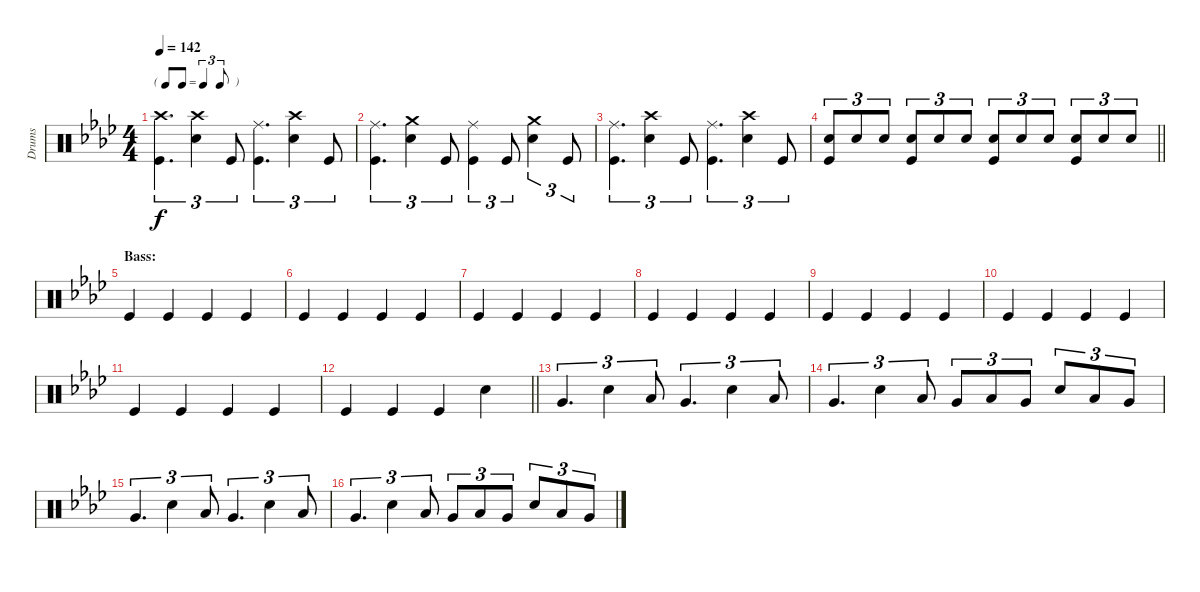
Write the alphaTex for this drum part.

\track ("Drums" "Drums") {instrument percussion}
\staff {score}
\articulation defaults
\ts (4 4)
\tf triplet8th
\tempo 142
\clef neutral
\ks ab
("Crash high (hit)" "Kick (hit)").4{d tu (3 2) dy f} ("Snare (hit) 2" "Crash high (hit)").4{tu (3 2)} "Kick (hit)".8{tu (3 2)} ("Kick (hit)" "Ride (middle)").4{d tu (3 2)} ("Snare (hit) 2" "Crash high (hit)").4{tu (3 2)} "Kick (hit)".8{tu (3 2)} |
("Kick (hit)" "Ride (middle)").4{d tu (3 2)} ("Snare (hit) 2" "Crash medium (hit)").4{tu (3 2)} "Kick (hit)".8{tu (3 2)} ("Kick (hit)" "Ride (middle)").4{tu (3 2)} "Kick (hit)".8{tu (3 2)} ("Snare (hit) 2" "Crash medium (hit)").4{tu (3 2)} "Kick (hit)".8{tu (3 2)} |
("Ride (middle)" "Kick (hit)").4{d tu (3 2)} ("Snare (hit) 2" "Crash high (hit)").4{tu (3 2)} "Kick (hit)".8{tu (3 2)} ("Kick (hit)" "Ride (middle)").4{d tu (3 2)} ("Snare (hit) 2" "Crash high (hit)").4{tu (3 2)} "Kick (hit)".8{tu (3 2)} |
\barLineRight lightlight
("Snare (hit) 2" "Kick (hit)").8{tu (3 2)} "Snare (hit) 2".8{tu (3 2)} "Snare (hit) 2".8{tu (3 2)} ("Snare (hit) 2" "Kick (hit)").8{tu (3 2)} "Snare (hit) 2".8{tu (3 2)} "Snare (hit) 2".8{tu (3 2)} ("Snare (hit) 2" "Kick (hit)").8{tu (3 2)} "Snare (hit) 2".8{tu (3 2)} "Snare (hit) 2".8{tu (3 2)} ("Snare (hit) 2" "Kick (hit)").8{tu (3 2)} "Snare (hit) 2".8{tu (3 2)} "Snare (hit) 2".8{tu (3 2)} |
\section ("" "Bass:")
"Kick (hit)".4 "Kick (hit)".4 "Kick (hit)".4 "Kick (hit)".4 |
"Kick (hit)".4 "Kick (hit)".4 "Kick (hit)".4 "Kick (hit)".4 |
"Kick (hit)".4 "Kick (hit)".4 "Kick (hit)".4 "Kick (hit)".4 |
"Kick (hit)".4 "Kick (hit)".4 "Kick (hit)".4 "Kick (hit)".4 |
"Kick (hit)".4 "Kick (hit)".4 "Kick (hit)".4 "Kick (hit)".4 |
"Kick (hit)".4 "Kick (hit)".4 "Kick (hit)".4 "Kick (hit)".4 |
"Kick (hit)".4 "Kick (hit)".4 "Kick (hit)".4 "Kick (hit)".4 |
\barLineRight lightlight "Kick (hit)".4 "Kick (hit)".4 "Kick (hit)".4 "Snare (hit) 2".4
|
"Very Low Tom (hit)".4{d tu (3 2)} "Snare (hit) 2".4{tu (3 2)} "Low Floor Tom (hit)".8{tu (3 2)} "Very Low Tom (hit)".4{d tu (3 2)} "Snare (hit) 2".4{tu (3 2)} "Low Floor Tom (hit)".8{tu (3 2)} |
"Very Low Tom (hit)".4{d tu (3 2)} "Snare (hit) 2".4{tu (3 2)} "Low Floor Tom (hit)".8{tu (3 2)} "Very Low Tom (hit)".8{tu (3 2)} "Low Floor Tom (hit)".8{tu (3 2)} "Very Low Tom (hit)".8{tu (3 2)} "Snare (hit) 2".8{tu (3 2)} "Low Floor Tom (hit)".8{tu (3 2)} "Very Low Tom (hit)".8{tu (3 2)} |
"Very Low Tom (hit)".4{d tu (3 2)} "Snare (hit) 2".4{tu (3 2)} "Low Floor Tom (hit)".8{tu (3 2)} "Very Low Tom (hit)".4{d tu (3 2)} "Snare (hit) 2".4{tu (3 2)} "Low Floor Tom (hit)".8{tu (3 2)} |
"Very Low Tom (hit)".4{d tu (3 2)} "Snare (hit) 2".4{tu (3 2)} "Low Floor Tom (hit)".8{tu (3 2)} "Very Low Tom (hit)".8{tu (3 2)} "Low Floor Tom (hit)".8{tu (3 2)} "Very Low Tom (hit)".8{tu (3 2)} "Snare (hit) 2".8{tu (3 2)} "Low Floor Tom (hit)".8{tu (3 2)} "Very Low Tom (hit)".8{tu (3 2)}
